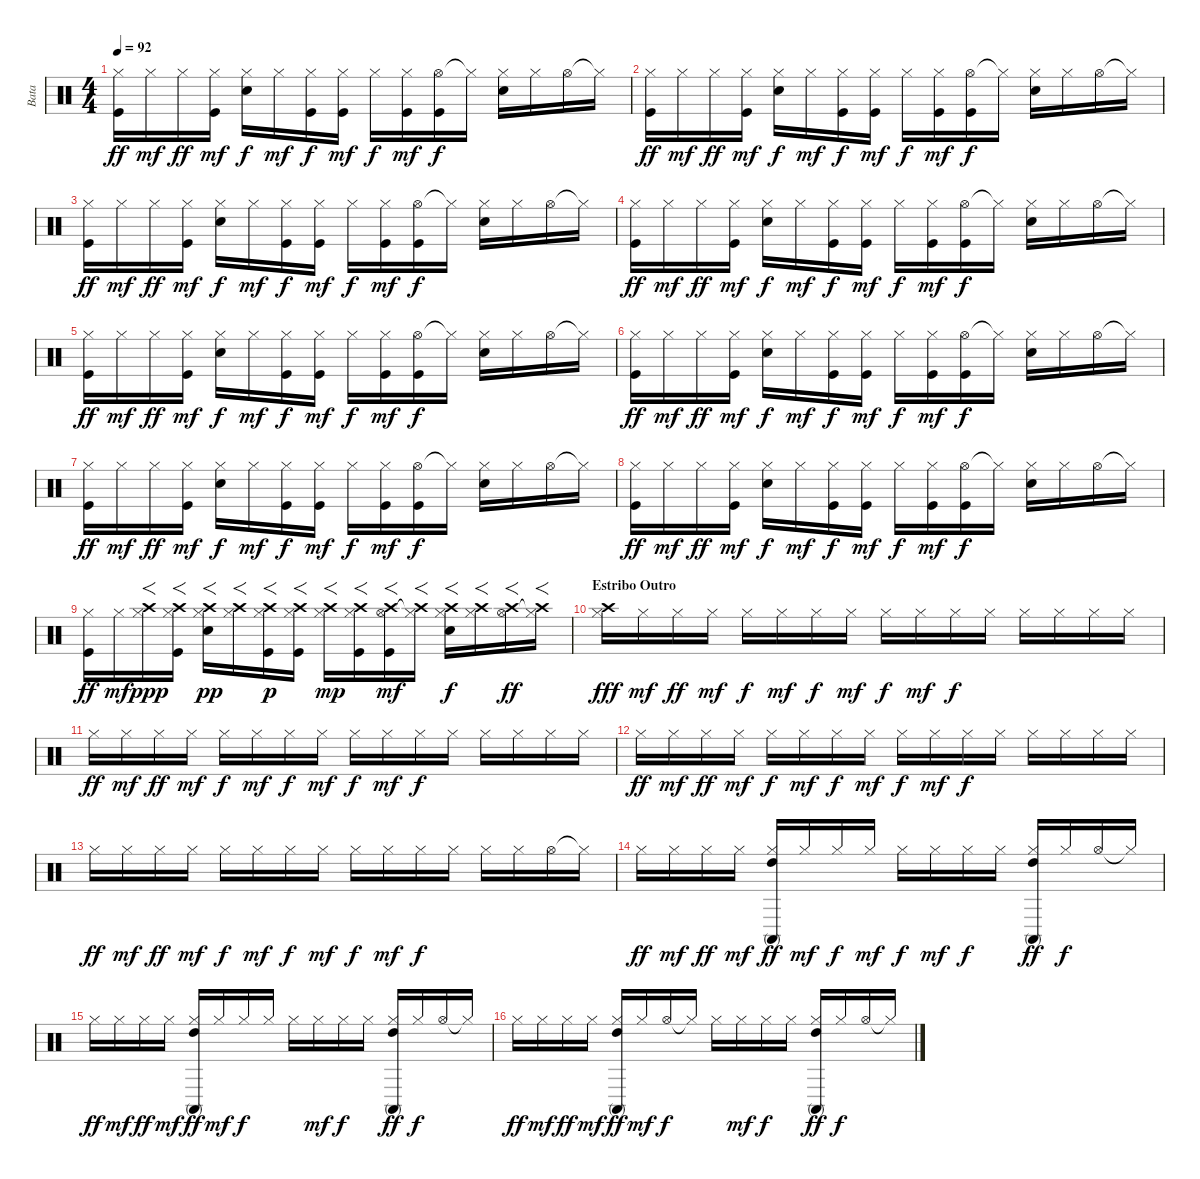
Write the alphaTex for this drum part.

\track ("Bata" "Bata") {instrument percussion}
\staff {score}
\articulation defaults
\ts (4 4)
\tempo 92
\clef neutral
\ks c
("Hi-Hat (closed)" "Kick (hit)").16{dy ff} "Hi-Hat (closed)".16{dy mf} "Hi-Hat (closed)".16{dy ff} ("Hi-Hat (closed)" "Kick (hit)").16{dy mf} ("Hi-Hat (closed)" "Electric Snare (hit)").16{dy f} "Hi-Hat (closed)".16{dy mf} ("Hi-Hat (closed)" "Kick (hit)").16{dy f} ("Hi-Hat (closed)" "Kick (hit)").16{dy mf} "Hi-Hat (closed)".16{dy f} ("Hi-Hat (closed)" "Kick (hit)").16{dy mf} ("Hi-Hat (open)" "Kick (hit)").16{dy f} "Hi-Hat (closed)"{t}.16 ("Hi-Hat (closed)" "Electric Snare (hit)").16 "Hi-Hat (closed)".16 "Hi-Hat (open)".16 "Hi-Hat (closed)"{t}.16 |
("Hi-Hat (closed)" "Kick (hit)").16{dy ff} "Hi-Hat (closed)".16{dy mf} "Hi-Hat (closed)".16{dy ff} ("Hi-Hat (closed)" "Kick (hit)").16{dy mf} ("Hi-Hat (closed)" "Electric Snare (hit)").16{dy f} "Hi-Hat (closed)".16{dy mf} ("Hi-Hat (closed)" "Kick (hit)").16{dy f} ("Hi-Hat (closed)" "Kick (hit)").16{dy mf} "Hi-Hat (closed)".16{dy f} ("Hi-Hat (closed)" "Kick (hit)").16{dy mf} ("Hi-Hat (open)" "Kick (hit)").16{dy f} "Hi-Hat (closed)"{t}.16 ("Hi-Hat (closed)" "Electric Snare (hit)").16 "Hi-Hat (closed)".16 "Hi-Hat (open)".16 "Hi-Hat (closed)"{t}.16 |
("Hi-Hat (closed)" "Kick (hit)").16{dy ff} "Hi-Hat (closed)".16{dy mf} "Hi-Hat (closed)".16{dy ff} ("Hi-Hat (closed)" "Kick (hit)").16{dy mf} ("Hi-Hat (closed)" "Electric Snare (hit)").16{dy f} "Hi-Hat (closed)".16{dy mf} ("Hi-Hat (closed)" "Kick (hit)").16{dy f} ("Hi-Hat (closed)" "Kick (hit)").16{dy mf} "Hi-Hat (closed)".16{dy f} ("Hi-Hat (closed)" "Kick (hit)").16{dy mf} ("Hi-Hat (open)" "Kick (hit)").16{dy f} "Hi-Hat (closed)"{t}.16 ("Hi-Hat (closed)" "Electric Snare (hit)").16 "Hi-Hat (closed)".16 "Hi-Hat (open)".16 "Hi-Hat (closed)"{t}.16 |
("Hi-Hat (closed)" "Kick (hit)").16{dy ff} "Hi-Hat (closed)".16{dy mf} "Hi-Hat (closed)".16{dy ff} ("Hi-Hat (closed)" "Kick (hit)").16{dy mf} ("Hi-Hat (closed)" "Electric Snare (hit)").16{dy f} "Hi-Hat (closed)".16{dy mf} ("Hi-Hat (closed)" "Kick (hit)").16{dy f} ("Hi-Hat (closed)" "Kick (hit)").16{dy mf} "Hi-Hat (closed)".16{dy f} ("Hi-Hat (closed)" "Kick (hit)").16{dy mf} ("Hi-Hat (open)" "Kick (hit)").16{dy f} "Hi-Hat (closed)"{t}.16 ("Hi-Hat (closed)" "Electric Snare (hit)").16 "Hi-Hat (closed)".16 "Hi-Hat (open)".16 "Hi-Hat (closed)"{t}.16 |
("Hi-Hat (closed)" "Kick (hit)").16{dy ff} "Hi-Hat (closed)".16{dy mf} "Hi-Hat (closed)".16{dy ff} ("Hi-Hat (closed)" "Kick (hit)").16{dy mf} ("Hi-Hat (closed)" "Electric Snare (hit)").16{dy f} "Hi-Hat (closed)".16{dy mf} ("Hi-Hat (closed)" "Kick (hit)").16{dy f} ("Hi-Hat (closed)" "Kick (hit)").16{dy mf} "Hi-Hat (closed)".16{dy f} ("Hi-Hat (closed)" "Kick (hit)").16{dy mf} ("Hi-Hat (open)" "Kick (hit)").16{dy f} "Hi-Hat (closed)"{t}.16 ("Hi-Hat (closed)" "Electric Snare (hit)").16 "Hi-Hat (closed)".16 "Hi-Hat (open)".16 "Hi-Hat (closed)"{t}.16 |
("Hi-Hat (closed)" "Kick (hit)").16{dy ff} "Hi-Hat (closed)".16{dy mf} "Hi-Hat (closed)".16{dy ff} ("Hi-Hat (closed)" "Kick (hit)").16{dy mf} ("Hi-Hat (closed)" "Electric Snare (hit)").16{dy f} "Hi-Hat (closed)".16{dy mf} ("Hi-Hat (closed)" "Kick (hit)").16{dy f} ("Hi-Hat (closed)" "Kick (hit)").16{dy mf} "Hi-Hat (closed)".16{dy f} ("Hi-Hat (closed)" "Kick (hit)").16{dy mf} ("Hi-Hat (open)" "Kick (hit)").16{dy f} "Hi-Hat (closed)"{t}.16 ("Hi-Hat (closed)" "Electric Snare (hit)").16 "Hi-Hat (closed)".16 "Hi-Hat (open)".16 "Hi-Hat (closed)"{t}.16 |
("Hi-Hat (closed)" "Kick (hit)").16{dy ff} "Hi-Hat (closed)".16{dy mf} "Hi-Hat (closed)".16{dy ff} ("Hi-Hat (closed)" "Kick (hit)").16{dy mf} ("Hi-Hat (closed)" "Electric Snare (hit)").16{dy f} "Hi-Hat (closed)".16{dy mf} ("Hi-Hat (closed)" "Kick (hit)").16{dy f} ("Hi-Hat (closed)" "Kick (hit)").16{dy mf} "Hi-Hat (closed)".16{dy f} ("Hi-Hat (closed)" "Kick (hit)").16{dy mf} ("Hi-Hat (open)" "Kick (hit)").16{dy f} "Hi-Hat (closed)"{t}.16 ("Hi-Hat (closed)" "Electric Snare (hit)").16 "Hi-Hat (closed)".16 "Hi-Hat (open)".16 "Hi-Hat (closed)"{t}.16 |
("Hi-Hat (closed)" "Kick (hit)").16{dy ff} "Hi-Hat (closed)".16{dy mf} "Hi-Hat (closed)".16{dy ff} ("Hi-Hat (closed)" "Kick (hit)").16{dy mf} ("Hi-Hat (closed)" "Electric Snare (hit)").16{dy f} "Hi-Hat (closed)".16{dy mf} ("Hi-Hat (closed)" "Kick (hit)").16{dy f} ("Hi-Hat (closed)" "Kick (hit)").16{dy mf} "Hi-Hat (closed)".16{dy f} ("Hi-Hat (closed)" "Kick (hit)").16{dy mf} ("Hi-Hat (open)" "Kick (hit)").16{dy f} "Hi-Hat (closed)"{t}.16 ("Hi-Hat (closed)" "Electric Snare (hit)").16 "Hi-Hat (closed)".16 "Hi-Hat (open)".16 "Hi-Hat (closed)"{t}.16 |
("Hi-Hat (closed)" "Kick (hit)").16{dy ff} "Hi-Hat (closed)".16{dy mf} ("Hi-Hat (closed)" "Crash high (hit)").16{f dy ppp} ("Hi-Hat (closed)" "Crash high (hit)" "Kick (hit)").16{f} ("Hi-Hat (closed)" "Crash high (hit)" "Electric Snare (hit)").16{f dy pp} ("Hi-Hat (closed)" "Crash high (hit)").16{f} ("Hi-Hat (closed)" "Crash high (hit)" "Kick (hit)").16{f dy p} ("Hi-Hat (closed)" "Crash high (hit)" "Kick (hit)").16{f} ("Hi-Hat (closed)" "Crash high (hit)").16{f dy mp} ("Hi-Hat (closed)" "Crash high (hit)" "Kick (hit)").16{f} ("Hi-Hat (open)" "Crash high (hit)" "Kick (hit)").16{f dy mf} ("Hi-Hat (closed)"{t} "Crash high (hit)").16{f} ("Hi-Hat (closed)" "Crash high (hit)" "Electric Snare (hit)").16{f dy f} ("Hi-Hat (closed)" "Crash high (hit)").16{f} ("Hi-Hat (open)" "Crash high (hit)").16{f dy ff} ("Hi-Hat (closed)"{t} "Crash high (hit)").16{f} |
\section ("" "Estribo Outro")
("Hi-Hat (closed)" "Crash high (hit)").16{dy fff} "Hi-Hat (closed)".16{dy mf} "Hi-Hat (closed)".16{dy ff} "Hi-Hat (closed)".16{dy mf} "Hi-Hat (closed)".16{dy f} "Hi-Hat (closed)".16{dy mf} "Hi-Hat (closed)".16{dy f} "Hi-Hat (closed)".16{dy mf} "Hi-Hat (closed)".16{dy f} "Hi-Hat (closed)".16{dy mf} "Hi-Hat (closed)".16{dy f} "Hi-Hat (closed)".16 "Hi-Hat (closed)".16 "Hi-Hat (closed)".16 "Hi-Hat (closed)".16 "Hi-Hat (closed)".16 |
"Hi-Hat (closed)".16{dy ff} "Hi-Hat (closed)".16{dy mf} "Hi-Hat (closed)".16{dy ff} "Hi-Hat (closed)".16{dy mf} "Hi-Hat (closed)".16{dy f} "Hi-Hat (closed)".16{dy mf} "Hi-Hat (closed)".16{dy f} "Hi-Hat (closed)".16{dy mf} "Hi-Hat (closed)".16{dy f} "Hi-Hat (closed)".16{dy mf} "Hi-Hat (closed)".16{dy f} "Hi-Hat (closed)".16 "Hi-Hat (closed)".16 "Hi-Hat (closed)".16 "Hi-Hat (closed)".16 "Hi-Hat (closed)".16 |
"Hi-Hat (closed)".16{dy ff} "Hi-Hat (closed)".16{dy mf} "Hi-Hat (closed)".16{dy ff} "Hi-Hat (closed)".16{dy mf} "Hi-Hat (closed)".16{dy f} "Hi-Hat (closed)".16{dy mf} "Hi-Hat (closed)".16{dy f} "Hi-Hat (closed)".16{dy mf} "Hi-Hat (closed)".16{dy f} "Hi-Hat (closed)".16{dy mf} "Hi-Hat (closed)".16{dy f} "Hi-Hat (closed)".16 "Hi-Hat (closed)".16 "Hi-Hat (closed)".16 "Hi-Hat (closed)".16 "Hi-Hat (closed)".16 |
"Hi-Hat (closed)".16{dy ff} "Hi-Hat (closed)".16{dy mf} "Hi-Hat (closed)".16{dy ff} "Hi-Hat (closed)".16{dy mf} "Hi-Hat (closed)".16{dy f} "Hi-Hat (closed)".16{dy mf} "Hi-Hat (closed)".16{dy f} "Hi-Hat (closed)".16{dy mf} "Hi-Hat (closed)".16{dy f} "Hi-Hat (closed)".16{dy mf} "Hi-Hat (closed)".16{dy f} "Hi-Hat (closed)".16 "Hi-Hat (closed)".16 "Hi-Hat (closed)".16 "Hi-Hat (open)".16 "Hi-Hat (closed)"{t}.16 |
"Hi-Hat (closed)".16{dy ff} "Hi-Hat (closed)".16{dy mf} "Hi-Hat (closed)".16{dy ff} "Hi-Hat (closed)".16{dy mf} ("Hi-Hat (closed)" "High Tom (hit)" "Conga high (mute)").16{dy ff} "Hi-Hat (closed)".16{dy mf} "Hi-Hat (closed)".16{dy f} "Hi-Hat (closed)".16{dy mf} "Hi-Hat (closed)".16{dy f} "Hi-Hat (closed)".16{dy mf} "Hi-Hat (closed)".16{dy f} "Hi-Hat (closed)".16 ("Hi-Hat (closed)" "High Tom (hit)" "Conga high (mute)").16{dy ff} "Hi-Hat (closed)".16{dy f} "Hi-Hat (open)".16 "Hi-Hat (closed)"{t}.16 |
"Hi-Hat (closed)".16{dy ff} "Hi-Hat (closed)".16{dy mf} "Hi-Hat (closed)".16{dy ff} "Hi-Hat (closed)".16{dy mf} ("Hi-Hat (closed)" "High Tom (hit)" "Conga high (mute)").16{dy ff} "Hi-Hat (closed)".16{dy mf} "Hi-Hat (closed)".16{dy f} "Hi-Hat (closed)".16 "Hi-Hat (closed)".16 "Hi-Hat (closed)".16{dy mf} "Hi-Hat (closed)".16{dy f} "Hi-Hat (closed)".16 ("Hi-Hat (closed)" "High Tom (hit)" "Conga high (mute)").16{dy ff} "Hi-Hat (closed)".16{dy f} "Hi-Hat (open)".16 "Hi-Hat (closed)"{t}.16 |
"Hi-Hat (closed)".16{dy ff} "Hi-Hat (closed)".16{dy mf} "Hi-Hat (closed)".16{dy ff} "Hi-Hat (closed)".16{dy mf} ("Hi-Hat (closed)" "High Tom (hit)" "Conga high (mute)").16{dy ff} "Hi-Hat (closed)".16{dy mf} "Hi-Hat (open)".16{dy f} "Hi-Hat (closed)"{t}.16 "Hi-Hat (closed)".16 "Hi-Hat (closed)".16{dy mf} "Hi-Hat (closed)".16{dy f} "Hi-Hat (closed)".16 ("Hi-Hat (closed)" "High Tom (hit)" "Conga high (mute)").16{dy ff} "Hi-Hat (closed)".16{dy f} "Hi-Hat (open)".16 "Hi-Hat (closed)"{t}.16
